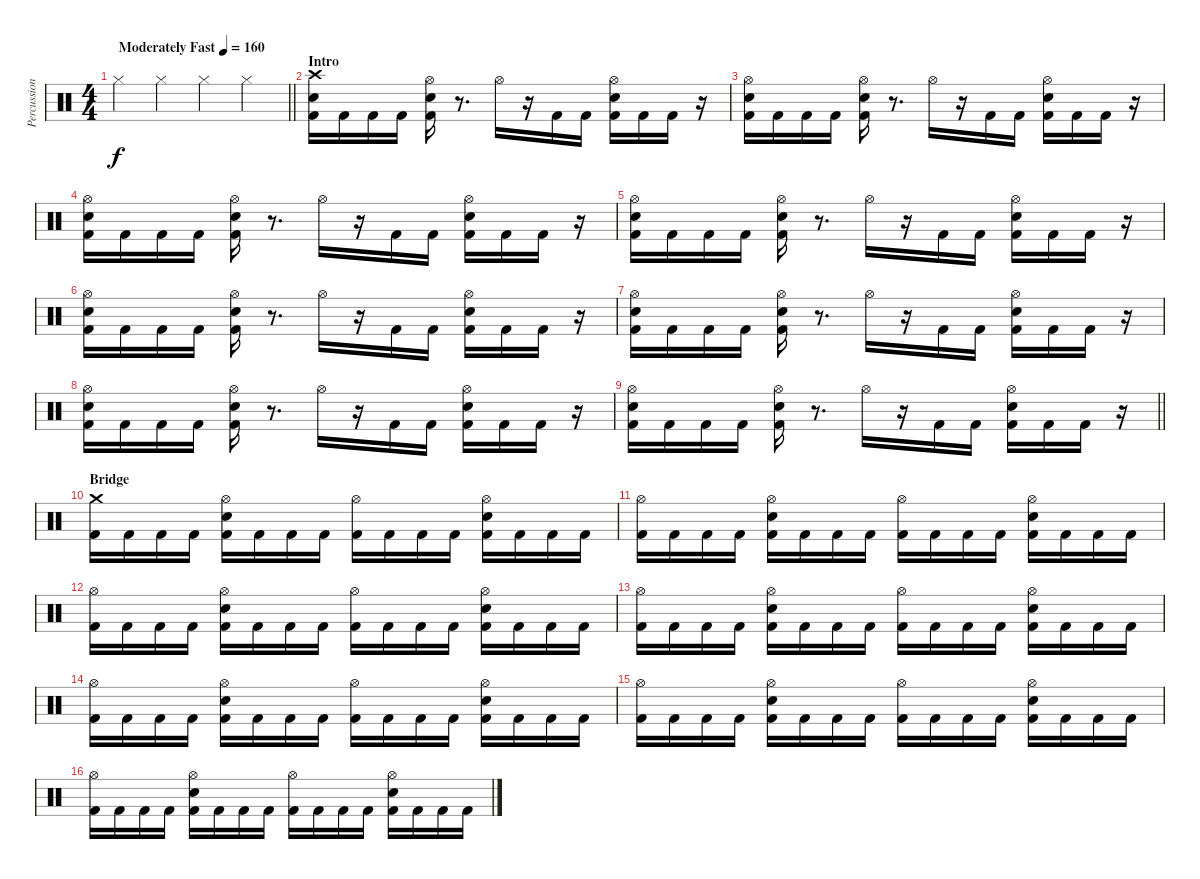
\track ("Percussion" "Percussion") {instrument percussion}
\staff {score}
\articulation defaults
\ts (4 4)
\tempo (160 "Moderately Fast")
\clef neutral
\barLineRight lightlight
\ks c "Hi-Hat (closed)".4{dy f} "Hi-Hat (closed)".4 "Hi-Hat (closed)".4 "Hi-Hat (closed)".4
|
\section ("" "Intro")
("Crash high (hit)" "Electric Snare (hit)" "Kick (hit) 2").16 "Kick (hit) 2".16 "Kick (hit) 2".16 "Kick (hit) 2".16 ("Hi-Hat (open)" "Electric Snare (hit)" "Kick (hit) 2").16 r.8{d} "Hi-Hat (open)".16 r.16 "Kick (hit) 2".16 "Kick (hit) 2".16 ("Hi-Hat (open)" "Electric Snare (hit)" "Kick (hit) 2").16 "Kick (hit) 2".16 "Kick (hit) 2".16 r.16 |
("Hi-Hat (open)" "Electric Snare (hit)" "Kick (hit) 2").16 "Kick (hit) 2".16 "Kick (hit) 2".16 "Kick (hit) 2".16 ("Hi-Hat (open)" "Electric Snare (hit)" "Kick (hit) 2").16 r.8{d} "Hi-Hat (open)".16 r.16 "Kick (hit) 2".16 "Kick (hit) 2".16 ("Hi-Hat (open)" "Electric Snare (hit)" "Kick (hit) 2").16 "Kick (hit) 2".16 "Kick (hit) 2".16 r.16 |
("Hi-Hat (open)" "Electric Snare (hit)" "Kick (hit) 2").16 "Kick (hit) 2".16 "Kick (hit) 2".16 "Kick (hit) 2".16 ("Hi-Hat (open)" "Electric Snare (hit)" "Kick (hit) 2").16 r.8{d} "Hi-Hat (open)".16 r.16 "Kick (hit) 2".16 "Kick (hit) 2".16 ("Hi-Hat (open)" "Electric Snare (hit)" "Kick (hit) 2").16 "Kick (hit) 2".16 "Kick (hit) 2".16 r.16 |
("Hi-Hat (open)" "Electric Snare (hit)" "Kick (hit) 2").16 "Kick (hit) 2".16 "Kick (hit) 2".16 "Kick (hit) 2".16 ("Hi-Hat (open)" "Electric Snare (hit)" "Kick (hit) 2").16 r.8{d} "Hi-Hat (open)".16 r.16 "Kick (hit) 2".16 "Kick (hit) 2".16 ("Hi-Hat (open)" "Electric Snare (hit)" "Kick (hit) 2").16 "Kick (hit) 2".16 "Kick (hit) 2".16 r.16 |
("Hi-Hat (open)" "Electric Snare (hit)" "Kick (hit) 2").16 "Kick (hit) 2".16 "Kick (hit) 2".16 "Kick (hit) 2".16 ("Hi-Hat (open)" "Electric Snare (hit)" "Kick (hit) 2").16 r.8{d} "Hi-Hat (open)".16 r.16 "Kick (hit) 2".16 "Kick (hit) 2".16 ("Hi-Hat (open)" "Electric Snare (hit)" "Kick (hit) 2").16 "Kick (hit) 2".16 "Kick (hit) 2".16 r.16 |
("Hi-Hat (open)" "Electric Snare (hit)" "Kick (hit) 2").16 "Kick (hit) 2".16 "Kick (hit) 2".16 "Kick (hit) 2".16 ("Hi-Hat (open)" "Electric Snare (hit)" "Kick (hit) 2").16 r.8{d} "Hi-Hat (open)".16 r.16 "Kick (hit) 2".16 "Kick (hit) 2".16 ("Hi-Hat (open)" "Electric Snare (hit)" "Kick (hit) 2").16 "Kick (hit) 2".16 "Kick (hit) 2".16 r.16 |
("Hi-Hat (open)" "Electric Snare (hit)" "Kick (hit) 2").16 "Kick (hit) 2".16 "Kick (hit) 2".16 "Kick (hit) 2".16 ("Hi-Hat (open)" "Electric Snare (hit)" "Kick (hit) 2").16 r.8{d} "Hi-Hat (open)".16 r.16 "Kick (hit) 2".16 "Kick (hit) 2".16 ("Hi-Hat (open)" "Electric Snare (hit)" "Kick (hit) 2").16 "Kick (hit) 2".16 "Kick (hit) 2".16 r.16 |
\barLineRight lightlight
("Hi-Hat (open)" "Electric Snare (hit)" "Kick (hit) 2").16 "Kick (hit) 2".16 "Kick (hit) 2".16 "Kick (hit) 2".16 ("Hi-Hat (open)" "Electric Snare (hit)" "Kick (hit) 2").16 r.8{d} "Hi-Hat (open)".16 r.16 "Kick (hit) 2".16 "Kick (hit) 2".16 ("Hi-Hat (open)" "Electric Snare (hit)" "Kick (hit) 2").16 "Kick (hit) 2".16 "Kick (hit) 2".16 r.16 |
\section ("" "Bridge")
("Crash medium (hit)" "Kick (hit) 2").16 "Kick (hit) 2".16 "Kick (hit) 2".16 "Kick (hit) 2".16 ("Hi-Hat (open)" "Electric Snare (hit)" "Kick (hit) 2").16 "Kick (hit) 2".16 "Kick (hit) 2".16 "Kick (hit) 2".16 ("Hi-Hat (open)" "Kick (hit) 2").16 "Kick (hit) 2".16 "Kick (hit) 2".16 "Kick (hit) 2".16 ("Hi-Hat (open)" "Electric Snare (hit)" "Kick (hit) 2").16 "Kick (hit) 2".16 "Kick (hit) 2".16 "Kick (hit) 2".16 |
("Hi-Hat (open)" "Kick (hit) 2").16 "Kick (hit) 2".16 "Kick (hit) 2".16 "Kick (hit) 2".16 ("Hi-Hat (open)" "Electric Snare (hit)" "Kick (hit) 2").16 "Kick (hit) 2".16 "Kick (hit) 2".16 "Kick (hit) 2".16 ("Hi-Hat (open)" "Kick (hit) 2").16 "Kick (hit) 2".16 "Kick (hit) 2".16 "Kick (hit) 2".16 ("Hi-Hat (open)" "Electric Snare (hit)" "Kick (hit) 2").16 "Kick (hit) 2".16 "Kick (hit) 2".16 "Kick (hit) 2".16 |
("Hi-Hat (open)" "Kick (hit) 2").16 "Kick (hit) 2".16 "Kick (hit) 2".16 "Kick (hit) 2".16 ("Hi-Hat (open)" "Electric Snare (hit)" "Kick (hit) 2").16 "Kick (hit) 2".16 "Kick (hit) 2".16 "Kick (hit) 2".16 ("Hi-Hat (open)" "Kick (hit) 2").16 "Kick (hit) 2".16 "Kick (hit) 2".16 "Kick (hit) 2".16 ("Hi-Hat (open)" "Electric Snare (hit)" "Kick (hit) 2").16 "Kick (hit) 2".16 "Kick (hit) 2".16 "Kick (hit) 2".16 |
("Hi-Hat (open)" "Kick (hit) 2").16 "Kick (hit) 2".16 "Kick (hit) 2".16 "Kick (hit) 2".16 ("Hi-Hat (open)" "Electric Snare (hit)" "Kick (hit) 2").16 "Kick (hit) 2".16 "Kick (hit) 2".16 "Kick (hit) 2".16 ("Hi-Hat (open)" "Kick (hit) 2").16 "Kick (hit) 2".16 "Kick (hit) 2".16 "Kick (hit) 2".16 ("Hi-Hat (open)" "Electric Snare (hit)" "Kick (hit) 2").16 "Kick (hit) 2".16 "Kick (hit) 2".16 "Kick (hit) 2".16 |
("Hi-Hat (open)" "Kick (hit) 2").16 "Kick (hit) 2".16 "Kick (hit) 2".16 "Kick (hit) 2".16 ("Hi-Hat (open)" "Electric Snare (hit)" "Kick (hit) 2").16 "Kick (hit) 2".16 "Kick (hit) 2".16 "Kick (hit) 2".16 ("Hi-Hat (open)" "Kick (hit) 2").16 "Kick (hit) 2".16 "Kick (hit) 2".16 "Kick (hit) 2".16 ("Hi-Hat (open)" "Electric Snare (hit)" "Kick (hit) 2").16 "Kick (hit) 2".16 "Kick (hit) 2".16 "Kick (hit) 2".16 |
("Hi-Hat (open)" "Kick (hit) 2").16 "Kick (hit) 2".16 "Kick (hit) 2".16 "Kick (hit) 2".16 ("Hi-Hat (open)" "Electric Snare (hit)" "Kick (hit) 2").16 "Kick (hit) 2".16 "Kick (hit) 2".16 "Kick (hit) 2".16 ("Hi-Hat (open)" "Kick (hit) 2").16 "Kick (hit) 2".16 "Kick (hit) 2".16 "Kick (hit) 2".16 ("Hi-Hat (open)" "Electric Snare (hit)" "Kick (hit) 2").16 "Kick (hit) 2".16 "Kick (hit) 2".16 "Kick (hit) 2".16 |
("Hi-Hat (open)" "Kick (hit) 2").16 "Kick (hit) 2".16 "Kick (hit) 2".16 "Kick (hit) 2".16 ("Hi-Hat (open)" "Electric Snare (hit)" "Kick (hit) 2").16 "Kick (hit) 2".16 "Kick (hit) 2".16 "Kick (hit) 2".16 ("Hi-Hat (open)" "Kick (hit) 2").16 "Kick (hit) 2".16 "Kick (hit) 2".16 "Kick (hit) 2".16 ("Hi-Hat (open)" "Electric Snare (hit)" "Kick (hit) 2").16 "Kick (hit) 2".16 "Kick (hit) 2".16 "Kick (hit) 2".16
